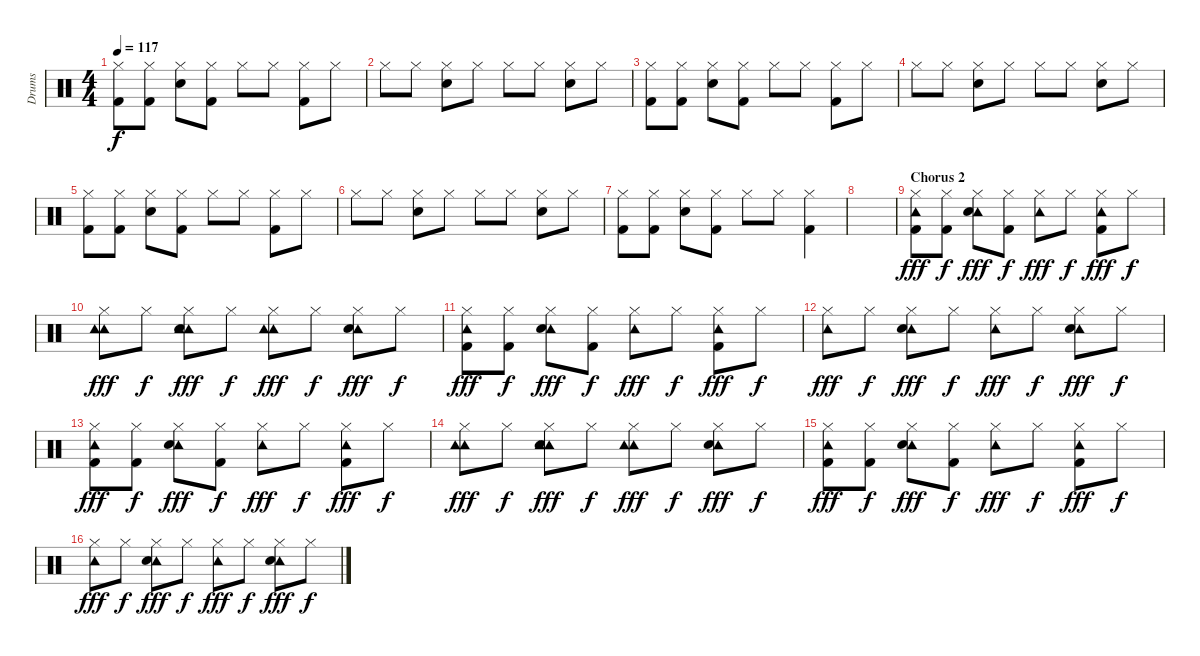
\track ("Drums" "Drums") {instrument percussion}
\staff {score}
\articulation defaults
\ts (4 4)
\tempo 117
\clef neutral
\ks c
("Hi-Hat (closed)" "Kick (hit) 2").8{dy f} ("Hi-Hat (closed)" "Kick (hit) 2").8 ("Hi-Hat (closed)" "Snare (hit) 2").8 ("Hi-Hat (closed)" "Kick (hit) 2").8 "Hi-Hat (closed)".8 "Hi-Hat (closed)".8 ("Hi-Hat (closed)" "Kick (hit) 2").8 "Hi-Hat (closed)".8 |
"Hi-Hat (closed)".8 "Hi-Hat (closed)".8 ("Hi-Hat (closed)" "Snare (hit) 2").8 "Hi-Hat (closed)".8 "Hi-Hat (closed)".8 "Hi-Hat (closed)".8 ("Hi-Hat (closed)" "Snare (hit) 2").8 "Hi-Hat (closed)".8 |
("Hi-Hat (closed)" "Kick (hit) 2").8 ("Hi-Hat (closed)" "Kick (hit) 2").8 ("Hi-Hat (closed)" "Snare (hit) 2").8 ("Hi-Hat (closed)" "Kick (hit) 2").8 "Hi-Hat (closed)".8 "Hi-Hat (closed)".8 ("Hi-Hat (closed)" "Kick (hit) 2").8 "Hi-Hat (closed)".8 |
"Hi-Hat (closed)".8 "Hi-Hat (closed)".8 ("Hi-Hat (closed)" "Snare (hit) 2").8 "Hi-Hat (closed)".8 "Hi-Hat (closed)".8 "Hi-Hat (closed)".8 ("Hi-Hat (closed)" "Snare (hit) 2").8 "Hi-Hat (closed)".8 |
("Hi-Hat (closed)" "Kick (hit) 2").8 ("Hi-Hat (closed)" "Kick (hit) 2").8 ("Hi-Hat (closed)" "Snare (hit) 2").8 ("Hi-Hat (closed)" "Kick (hit) 2").8 "Hi-Hat (closed)".8 "Hi-Hat (closed)".8 ("Hi-Hat (closed)" "Kick (hit) 2").8 "Hi-Hat (closed)".8 |
"Hi-Hat (closed)".8 "Hi-Hat (closed)".8 ("Hi-Hat (closed)" "Snare (hit) 2").8 "Hi-Hat (closed)".8 "Hi-Hat (closed)".8 "Hi-Hat (closed)".8 ("Hi-Hat (closed)" "Snare (hit) 2").8 "Hi-Hat (closed)".8 |
("Hi-Hat (closed)" "Kick (hit) 2").8 ("Hi-Hat (closed)" "Kick (hit) 2").8 ("Hi-Hat (closed)" "Snare (hit) 2").8 ("Hi-Hat (closed)" "Kick (hit) 2").8 "Hi-Hat (closed)".8 "Hi-Hat (closed)".8 ("Hi-Hat (closed)" "Kick (hit) 2").4 |
|
\section ("" "Chorus 2")
("Tambourine (hit)" "Hi-Hat (closed)" "Kick (hit) 2").8{dy fff} ("Hi-Hat (closed)" "Kick (hit) 2").8{dy f} ("Tambourine (hit)" "Hi-Hat (closed)" "Snare (hit) 2").8{dy fff} ("Hi-Hat (closed)" "Kick (hit) 2").8{dy f} ("Tambourine (hit)" "Hi-Hat (closed)").8{dy fff} "Hi-Hat (closed)".8{dy f} ("Tambourine (hit)" "Hi-Hat (closed)" "Kick (hit) 2").8{dy fff} "Hi-Hat (closed)".8{dy f} |
("Tambourine (hit)" "Tambourine (hit)" "Hi-Hat (closed)").8{dy fff} "Hi-Hat (closed)".8{dy f} ("Tambourine (hit)" "Tambourine (hit)" "Hi-Hat (closed)" "Snare (hit) 2").8{dy fff} "Hi-Hat (closed)".8{dy f} ("Tambourine (hit)" "Tambourine (hit)" "Hi-Hat (closed)").8{dy fff} "Hi-Hat (closed)".8{dy f} ("Tambourine (hit)" "Hi-Hat (closed)" "Snare (hit) 2").8{dy fff} "Hi-Hat (closed)".8{dy f} |
("Tambourine (hit)" "Hi-Hat (closed)" "Kick (hit) 2").8{dy fff} ("Hi-Hat (closed)" "Kick (hit) 2").8{dy f} ("Tambourine (hit)" "Hi-Hat (closed)" "Snare (hit) 2").8{dy fff} ("Hi-Hat (closed)" "Kick (hit) 2").8{dy f} ("Tambourine (hit)" "Hi-Hat (closed)").8{dy fff} "Hi-Hat (closed)".8{dy f} ("Tambourine (hit)" "Hi-Hat (closed)" "Kick (hit) 2").8{dy fff} "Hi-Hat (closed)".8{dy f} |
("Tambourine (hit)" "Hi-Hat (closed)").8{dy fff} "Hi-Hat (closed)".8{dy f} ("Tambourine (hit)" "Hi-Hat (closed)" "Snare (hit) 2").8{dy fff} "Hi-Hat (closed)".8{dy f} ("Tambourine (hit)" "Hi-Hat (closed)").8{dy fff} "Hi-Hat (closed)".8{dy f} ("Tambourine (hit)" "Hi-Hat (closed)" "Snare (hit) 2").8{dy fff} "Hi-Hat (closed)".8{dy f} |
("Tambourine (hit)" "Hi-Hat (closed)" "Kick (hit) 2").8{dy fff} ("Hi-Hat (closed)" "Kick (hit) 2").8{dy f} ("Tambourine (hit)" "Hi-Hat (closed)" "Snare (hit) 2").8{dy fff} ("Hi-Hat (closed)" "Kick (hit) 2").8{dy f} ("Tambourine (hit)" "Hi-Hat (closed)").8{dy fff} "Hi-Hat (closed)".8{dy f} ("Tambourine (hit)" "Hi-Hat (closed)" "Kick (hit) 2").8{dy fff} "Hi-Hat (closed)".8{dy f} |
("Tambourine (hit)" "Tambourine (hit)" "Hi-Hat (closed)").8{dy fff} "Hi-Hat (closed)".8{dy f} ("Tambourine (hit)" "Tambourine (hit)" "Hi-Hat (closed)" "Snare (hit) 2").8{dy fff} "Hi-Hat (closed)".8{dy f} ("Tambourine (hit)" "Tambourine (hit)" "Hi-Hat (closed)").8{dy fff} "Hi-Hat (closed)".8{dy f} ("Tambourine (hit)" "Hi-Hat (closed)" "Snare (hit) 2").8{dy fff} "Hi-Hat (closed)".8{dy f} |
("Tambourine (hit)" "Hi-Hat (closed)" "Kick (hit) 2").8{dy fff} ("Hi-Hat (closed)" "Kick (hit) 2").8{dy f} ("Tambourine (hit)" "Hi-Hat (closed)" "Snare (hit) 2").8{dy fff} ("Hi-Hat (closed)" "Kick (hit) 2").8{dy f} ("Tambourine (hit)" "Hi-Hat (closed)").8{dy fff} "Hi-Hat (closed)".8{dy f} ("Tambourine (hit)" "Hi-Hat (closed)" "Kick (hit) 2").8{dy fff} "Hi-Hat (closed)".8{dy f} |
("Tambourine (hit)" "Hi-Hat (closed)").8{dy fff} "Hi-Hat (closed)".8{dy f} ("Tambourine (hit)" "Hi-Hat (closed)" "Snare (hit) 2").8{dy fff} "Hi-Hat (closed)".8{dy f} ("Tambourine (hit)" "Hi-Hat (closed)").8{dy fff} "Hi-Hat (closed)".8{dy f} ("Tambourine (hit)" "Hi-Hat (closed)" "Snare (hit) 2").8{dy fff} "Hi-Hat (closed)".8{dy f}
